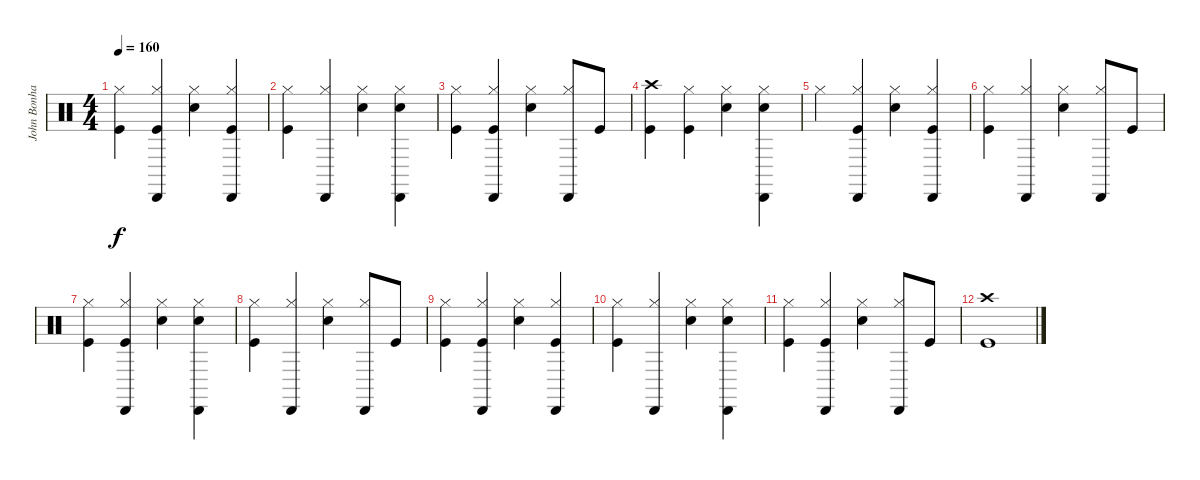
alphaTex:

\track ("John Bonham - Drums" "John Bonha") {instrument percussion}
\staff {score}
\articulation defaults
\ts (4 4)
\tempo 160
\clef neutral
\ks c
("Hi-Hat (closed)" "Kick (hit)").4{dy f} ("Hi-Hat (closed)" "Kick (hit)" "Cabasa (hit)").4 ("Hi-Hat (closed)" "Snare (hit) 2").4 ("Hi-Hat (closed)" "Kick (hit)" "Cabasa (hit)").4 |
("Hi-Hat (closed)" "Kick (hit)").4 ("Hi-Hat (closed)" "Cabasa (hit)").4 ("Snare (hit) 2" "Hi-Hat (closed)").4 ("Snare (hit) 2" "Hi-Hat (closed)" "Cabasa (hit)").4 |
("Hi-Hat (closed)" "Kick (hit)").4 ("Hi-Hat (closed)" "Kick (hit)" "Cabasa (hit)").4 ("Hi-Hat (closed)" "Snare (hit) 2").4 ("Hi-Hat (closed)" "Cabasa (hit)").8 "Kick (hit)".8 |
("Kick (hit)" "Crash high (hit)").4 ("Hi-Hat (closed)" "Kick (hit)").4 ("Hi-Hat (closed)" "Snare (hit) 2").4 ("Snare (hit) 2" "Hi-Hat (closed)" "Cabasa (hit)").4 |
"Hi-Hat (closed)".4 ("Kick (hit)" "Cabasa (hit)" "Hi-Hat (closed)").4 ("Snare (hit) 2" "Hi-Hat (closed)").4 ("Kick (hit)" "Cabasa (hit)" "Hi-Hat (closed)").4 |
("Kick (hit)" "Hi-Hat (closed)").4 ("Hi-Hat (closed)" "Cabasa (hit)").4 ("Snare (hit) 2" "Hi-Hat (closed)").4 ("Hi-Hat (closed)" "Cabasa (hit)").8 "Kick (hit)".8 |
("Hi-Hat (closed)" "Kick (hit)").4 ("Hi-Hat (closed)" "Kick (hit)" "Cabasa (hit)").4 ("Hi-Hat (closed)" "Snare (hit) 2").4 ("Hi-Hat (closed)" "Snare (hit) 2" "Cabasa (hit)").4 |
("Hi-Hat (closed)" "Kick (hit)").4 ("Hi-Hat (closed)" "Cabasa (hit)").4 ("Snare (hit) 2" "Hi-Hat (closed)").4 ("Hi-Hat (closed)" "Cabasa (hit)").8 "Kick (hit)".8 |
("Hi-Hat (closed)" "Kick (hit)").4 ("Hi-Hat (closed)" "Kick (hit)" "Cabasa (hit)").4 ("Hi-Hat (closed)" "Snare (hit) 2").4 ("Hi-Hat (closed)" "Kick (hit)" "Cabasa (hit)").4 |
("Hi-Hat (closed)" "Kick (hit)").4 ("Hi-Hat (closed)" "Cabasa (hit)").4 ("Snare (hit) 2" "Hi-Hat (closed)").4 ("Snare (hit) 2" "Hi-Hat (closed)" "Cabasa (hit)").4 |
("Hi-Hat (closed)" "Kick (hit)").4 ("Hi-Hat (closed)" "Kick (hit)" "Cabasa (hit)").4 ("Hi-Hat (closed)" "Snare (hit) 2").4 ("Hi-Hat (closed)" "Cabasa (hit)").8 "Kick (hit)".8 |
("Crash high (hit)" "Kick (hit)").1
